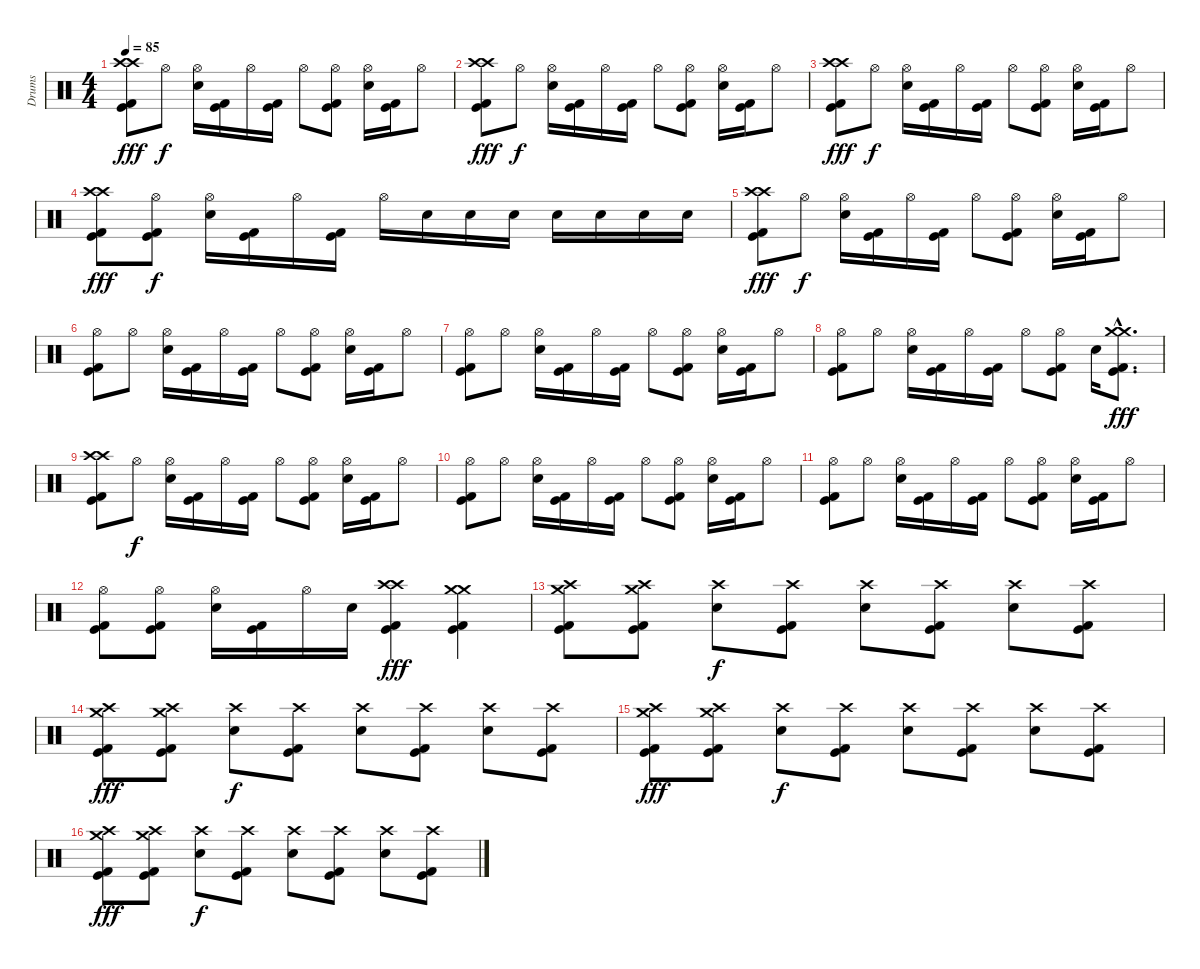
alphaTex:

\track ("Drums" "Drums") {instrument percussion}
\staff {score}
\articulation defaults
\ts (4 4)
\tempo 85
\clef neutral
\ks c
("Crash high (hit)" "Crash high (hit)" "Kick (hit) 2" "Kick (hit)").8{dy fff volume 14} "Hi-Hat (open)".8{dy f} ("Hi-Hat (open)" "Snare (hit) 2").16 ("Kick (hit) 2" "Kick (hit)").16 "Hi-Hat (open)".16 ("Kick (hit) 2" "Kick (hit)").16 "Hi-Hat (open)".8 ("Hi-Hat (open)" "Kick (hit) 2" "Kick (hit)").8 ("Hi-Hat (open)" "Snare (hit) 2").16 ("Kick (hit) 2" "Kick (hit)").16 "Hi-Hat (open)".8 |
("Crash high (hit)" "Crash high (hit)" "Kick (hit) 2" "Kick (hit)").8{dy fff} "Hi-Hat (open)".8{dy f} ("Hi-Hat (open)" "Snare (hit) 2").16 ("Kick (hit) 2" "Kick (hit)").16 "Hi-Hat (open)".16 ("Kick (hit) 2" "Kick (hit)").16 "Hi-Hat (open)".8 ("Hi-Hat (open)" "Kick (hit) 2" "Kick (hit)").8 ("Hi-Hat (open)" "Snare (hit) 2").16 ("Kick (hit) 2" "Kick (hit)").16 "Hi-Hat (open)".8 |
("Crash high (hit)" "Crash high (hit)" "Kick (hit) 2" "Kick (hit)").8{dy fff} "Hi-Hat (open)".8{dy f} ("Hi-Hat (open)" "Snare (hit) 2").16 ("Kick (hit) 2" "Kick (hit)").16 "Hi-Hat (open)".16 ("Kick (hit) 2" "Kick (hit)").16 "Hi-Hat (open)".8 ("Hi-Hat (open)" "Kick (hit) 2" "Kick (hit)").8 ("Hi-Hat (open)" "Snare (hit) 2").16 ("Kick (hit) 2" "Kick (hit)").16 "Hi-Hat (open)".8 |
("Crash high (hit)" "Crash high (hit)" "Kick (hit) 2" "Kick (hit)").8{dy fff} ("Hi-Hat (open)" "Kick (hit) 2" "Kick (hit)").8{dy f} ("Hi-Hat (open)" "Snare (hit) 2").16 ("Kick (hit) 2" "Kick (hit)").16 "Hi-Hat (open)".16 ("Kick (hit) 2" "Kick (hit)").16 "Hi-Hat (open)".16 "Snare (hit) 2".16 "Snare (hit) 2".16 "Snare (hit) 2".16 "Snare (hit) 2".16 "Snare (hit) 2".16 "Snare (hit) 2".16 "Snare (hit) 2".16 |
("Crash high (hit)" "Crash high (hit)" "Kick (hit) 2" "Kick (hit)").8{dy fff} "Hi-Hat (open)".8{dy f} ("Hi-Hat (open)" "Snare (hit) 2").16 ("Kick (hit) 2" "Kick (hit)").16 "Hi-Hat (open)".16 ("Kick (hit) 2" "Kick (hit)").16 "Hi-Hat (open)".8 ("Hi-Hat (open)" "Kick (hit) 2" "Kick (hit)").8 ("Hi-Hat (open)" "Snare (hit) 2").16 ("Kick (hit) 2" "Kick (hit)").16 "Hi-Hat (open)".8 |
("Hi-Hat (open)" "Kick (hit) 2" "Kick (hit)").8 "Hi-Hat (open)".8 ("Hi-Hat (open)" "Snare (hit) 2").16 ("Kick (hit) 2" "Kick (hit)").16 "Hi-Hat (open)".16 ("Kick (hit) 2" "Kick (hit)").16 "Hi-Hat (open)".8 ("Hi-Hat (open)" "Kick (hit) 2" "Kick (hit)").8 ("Hi-Hat (open)" "Snare (hit) 2").16 ("Kick (hit) 2" "Kick (hit)").16 "Hi-Hat (open)".8 |
("Hi-Hat (open)" "Kick (hit) 2" "Kick (hit)").8 "Hi-Hat (open)".8 ("Hi-Hat (open)" "Snare (hit) 2").16 ("Kick (hit) 2" "Kick (hit)").16 "Hi-Hat (open)".16 ("Kick (hit) 2" "Kick (hit)").16 "Hi-Hat (open)".8 ("Hi-Hat (open)" "Kick (hit) 2" "Kick (hit)").8 ("Hi-Hat (open)" "Snare (hit) 2").16 ("Kick (hit) 2" "Kick (hit)").16 "Hi-Hat (open)".8 |
("Hi-Hat (open)" "Kick (hit) 2" "Kick (hit)").8 "Hi-Hat (open)".8 ("Hi-Hat (open)" "Snare (hit) 2").16 ("Kick (hit) 2" "Kick (hit)").16 "Hi-Hat (open)".16 ("Kick (hit) 2" "Kick (hit)").16 "Hi-Hat (open)".8 ("Hi-Hat (open)" "Kick (hit) 2" "Kick (hit)").8 "Snare (hit) 2".16 ("Crash medium (hit)"{hac} "Crash medium (hit)"{hac} "Kick (hit) 2"{hac} "Kick (hit)"{hac}).8{d dy fff} |
("Crash high (hit)" "Crash high (hit)" "Kick (hit) 2" "Kick (hit)").8 "Hi-Hat (open)".8{dy f} ("Hi-Hat (open)" "Snare (hit) 2").16 ("Kick (hit) 2" "Kick (hit)").16 "Hi-Hat (open)".16 ("Kick (hit) 2" "Kick (hit)").16 "Hi-Hat (open)".8 ("Hi-Hat (open)" "Kick (hit) 2" "Kick (hit)").8 ("Hi-Hat (open)" "Snare (hit) 2").16 ("Kick (hit) 2" "Kick (hit)").16 "Hi-Hat (open)".8 |
("Hi-Hat (open)" "Kick (hit) 2" "Kick (hit)").8 "Hi-Hat (open)".8 ("Hi-Hat (open)" "Snare (hit) 2").16 ("Kick (hit) 2" "Kick (hit)").16 "Hi-Hat (open)".16 ("Kick (hit) 2" "Kick (hit)").16 "Hi-Hat (open)".8 ("Hi-Hat (open)" "Kick (hit) 2" "Kick (hit)").8 ("Hi-Hat (open)" "Snare (hit) 2").16 ("Kick (hit) 2" "Kick (hit)").16 "Hi-Hat (open)".8 |
("Hi-Hat (open)" "Kick (hit) 2" "Kick (hit)").8 "Hi-Hat (open)".8 ("Hi-Hat (open)" "Snare (hit) 2").16 ("Kick (hit) 2" "Kick (hit)").16 "Hi-Hat (open)".16 ("Kick (hit) 2" "Kick (hit)").16 "Hi-Hat (open)".8 ("Hi-Hat (open)" "Kick (hit) 2" "Kick (hit)").8 ("Hi-Hat (open)" "Snare (hit) 2").16 ("Kick (hit) 2" "Kick (hit)").16 "Hi-Hat (open)".8 |
("Hi-Hat (open)" "Kick (hit) 2" "Kick (hit)").8 ("Hi-Hat (open)" "Kick (hit) 2" "Kick (hit)").8 ("Hi-Hat (open)" "Snare (hit) 2").16 ("Kick (hit) 2" "Kick (hit)").16 "Hi-Hat (open)".16 "Snare (hit) 2".16 ("Crash high (hit)" "Crash high (hit)" "Kick (hit) 2" "Kick (hit)").4{dy fff} ("Crash medium (hit)" "Crash medium (hit)" "Kick (hit) 2" "Kick (hit)").4 |
("Crash high (hit)" "Crash medium (hit)" "Kick (hit) 2" "Kick (hit)").8 ("Crash high (hit)" "Crash medium (hit)" "Kick (hit) 2" "Kick (hit)").8 ("Crash high (hit)" "Snare (hit) 2").8{dy f} ("Crash high (hit)" "Kick (hit) 2" "Kick (hit)").8 ("Crash high (hit)" "Snare (hit) 2").8 ("Crash high (hit)" "Kick (hit) 2" "Kick (hit)").8 ("Crash high (hit)" "Snare (hit) 2").8 ("Crash high (hit)" "Kick (hit) 2" "Kick (hit)").8 |
("Crash high (hit)" "Crash medium (hit)" "Kick (hit) 2" "Kick (hit)").8{dy fff} ("Crash high (hit)" "Crash medium (hit)" "Kick (hit) 2" "Kick (hit)").8 ("Crash high (hit)" "Snare (hit) 2").8{dy f} ("Crash high (hit)" "Kick (hit) 2" "Kick (hit)").8 ("Crash high (hit)" "Snare (hit) 2").8 ("Crash high (hit)" "Kick (hit) 2" "Kick (hit)").8 ("Crash high (hit)" "Snare (hit) 2").8 ("Crash high (hit)" "Kick (hit) 2" "Kick (hit)").8 |
("Crash high (hit)" "Crash medium (hit)" "Kick (hit) 2" "Kick (hit)").8{dy fff} ("Crash high (hit)" "Crash medium (hit)" "Kick (hit) 2" "Kick (hit)").8 ("Crash high (hit)" "Snare (hit) 2").8{dy f} ("Crash high (hit)" "Kick (hit) 2" "Kick (hit)").8 ("Crash high (hit)" "Snare (hit) 2").8 ("Crash high (hit)" "Kick (hit) 2" "Kick (hit)").8 ("Crash high (hit)" "Snare (hit) 2").8 ("Crash high (hit)" "Kick (hit) 2" "Kick (hit)").8 |
("Crash high (hit)" "Crash medium (hit)" "Kick (hit) 2" "Kick (hit)").8{dy fff} ("Crash high (hit)" "Crash medium (hit)" "Kick (hit) 2" "Kick (hit)").8 ("Crash high (hit)" "Snare (hit) 2").8{dy f} ("Crash high (hit)" "Kick (hit) 2" "Kick (hit)").8 ("Crash high (hit)" "Snare (hit) 2").8 ("Crash high (hit)" "Kick (hit) 2" "Kick (hit)").8 ("Crash high (hit)" "Snare (hit) 2").8 ("Crash high (hit)" "Kick (hit) 2" "Kick (hit)").8
